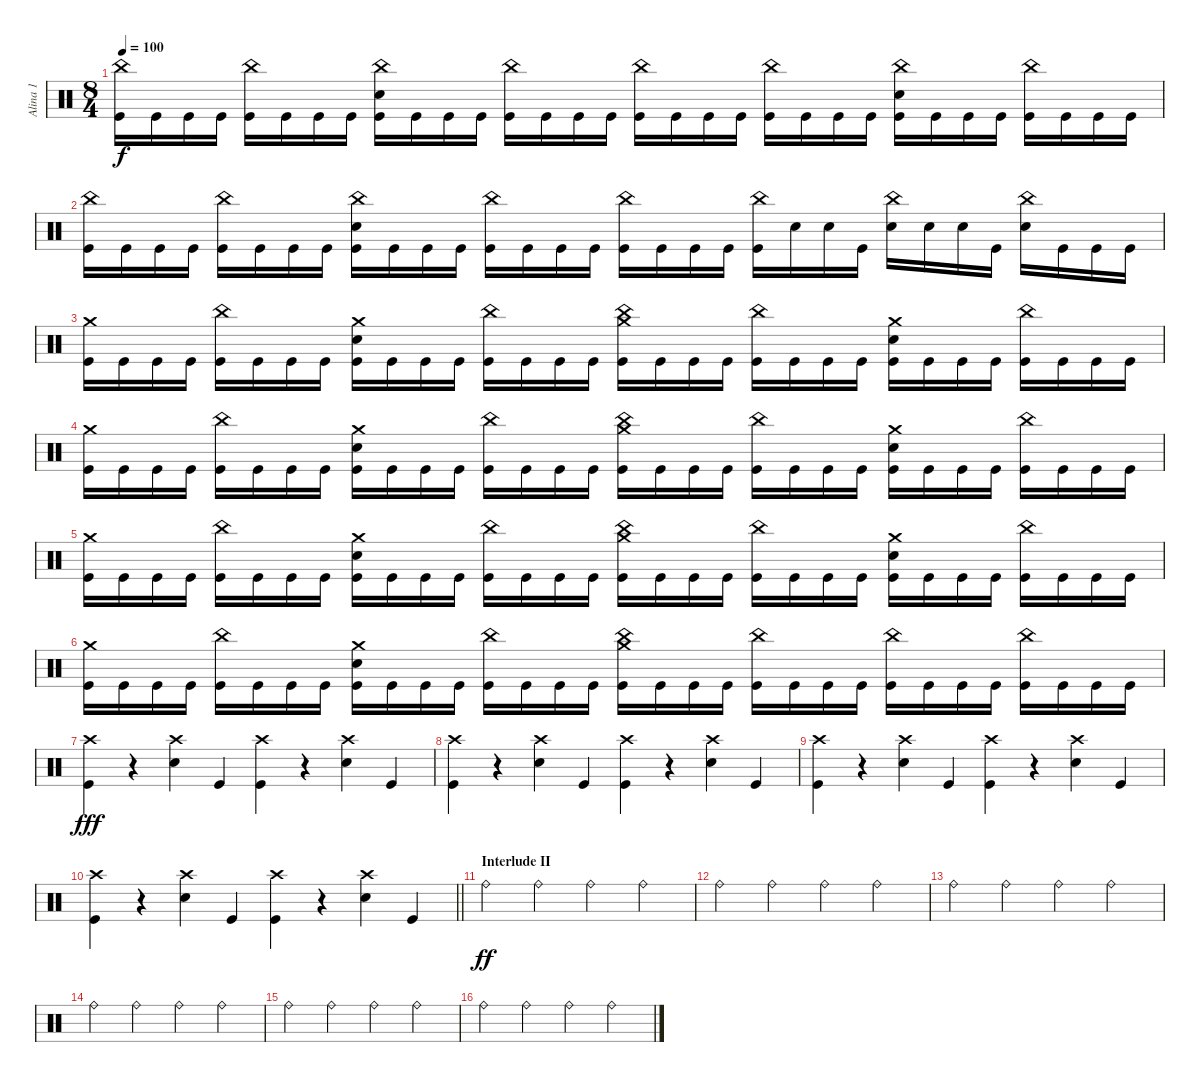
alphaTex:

\track ("Alina 1" "Alina 1") {mute instrument percussion}
\staff {score}
\articulation defaults
\ts (8 4)
\tempo 100
\clef neutral
\ks c
("China (hit)" "Kick (hit)").16{dy f} "Kick (hit)".16 "Kick (hit)".16 "Kick (hit)".16 ("China (hit)" "Kick (hit)").16 "Kick (hit)".16 "Kick (hit)".16 "Kick (hit)".16 ("China (hit)" "Snare (hit) 2" "Kick (hit)").16 "Kick (hit)".16 "Kick (hit)".16 "Kick (hit)".16 ("China (hit)" "Kick (hit)").16 "Kick (hit)".16 "Kick (hit)".16 "Kick (hit)".16 ("China (hit)" "Kick (hit)").16 "Kick (hit)".16 "Kick (hit)".16 "Kick (hit)".16 ("China (hit)" "Kick (hit)").16 "Kick (hit)".16 "Kick (hit)".16 "Kick (hit)".16 ("China (hit)" "Snare (hit) 2" "Kick (hit)").16 "Kick (hit)".16 "Kick (hit)".16 "Kick (hit)".16 ("China (hit)" "Kick (hit)").16 "Kick (hit)".16 "Kick (hit)".16 "Kick (hit)".16 |
("China (hit)" "Kick (hit)").16 "Kick (hit)".16 "Kick (hit)".16 "Kick (hit)".16 ("China (hit)" "Kick (hit)").16 "Kick (hit)".16 "Kick (hit)".16 "Kick (hit)".16 ("China (hit)" "Snare (hit) 2" "Kick (hit)").16 "Kick (hit)".16 "Kick (hit)".16 "Kick (hit)".16 ("China (hit)" "Kick (hit)").16 "Kick (hit)".16 "Kick (hit)".16 "Kick (hit)".16 ("China (hit)" "Kick (hit)").16 "Kick (hit)".16 "Kick (hit)".16 "Kick (hit)".16 ("China (hit)" "Kick (hit)").16 "Snare (hit) 2".16 "Snare (hit) 2".16 "Kick (hit)".16 ("China (hit)" "Snare (hit) 2").16 "Snare (hit) 2".16 "Snare (hit) 2".16 "Kick (hit)".16 ("China (hit)" "Snare (hit) 2").16 "Kick (hit)".16 "Kick (hit)".16 "Kick (hit)".16 |
("Crash medium (hit)" "Kick (hit)").16 "Kick (hit)".16 "Kick (hit)".16 "Kick (hit)".16 ("China (hit)" "Kick (hit)").16 "Kick (hit)".16 "Kick (hit)".16 "Kick (hit)".16 ("Crash medium (hit)" "Snare (hit) 2" "Kick (hit)").16 "Kick (hit)".16 "Kick (hit)".16 "Kick (hit)".16 ("China (hit)" "Kick (hit)").16 "Kick (hit)".16 "Kick (hit)".16 "Kick (hit)".16 ("Crash medium (hit)" "China (hit)" "Kick (hit)").16 "Kick (hit)".16 "Kick (hit)".16 "Kick (hit)".16 ("China (hit)" "Kick (hit)").16 "Kick (hit)".16 "Kick (hit)".16 "Kick (hit)".16 ("Crash medium (hit)" "Snare (hit) 2" "Kick (hit)").16 "Kick (hit)".16 "Kick (hit)".16 "Kick (hit)".16 ("China (hit)" "Kick (hit)").16 "Kick (hit)".16 "Kick (hit)".16 "Kick (hit)".16 |
("Crash medium (hit)" "Kick (hit)").16 "Kick (hit)".16 "Kick (hit)".16 "Kick (hit)".16 ("China (hit)" "Kick (hit)").16 "Kick (hit)".16 "Kick (hit)".16 "Kick (hit)".16 ("Crash medium (hit)" "Snare (hit) 2" "Kick (hit)").16 "Kick (hit)".16 "Kick (hit)".16 "Kick (hit)".16 ("China (hit)" "Kick (hit)").16 "Kick (hit)".16 "Kick (hit)".16 "Kick (hit)".16 ("Crash medium (hit)" "China (hit)" "Kick (hit)").16 "Kick (hit)".16 "Kick (hit)".16 "Kick (hit)".16 ("China (hit)" "Kick (hit)").16 "Kick (hit)".16 "Kick (hit)".16 "Kick (hit)".16 ("Crash medium (hit)" "Snare (hit) 2" "Kick (hit)").16 "Kick (hit)".16 "Kick (hit)".16 "Kick (hit)".16 ("China (hit)" "Kick (hit)").16 "Kick (hit)".16 "Kick (hit)".16 "Kick (hit)".16 |
("Crash medium (hit)" "Kick (hit)").16 "Kick (hit)".16 "Kick (hit)".16 "Kick (hit)".16 ("China (hit)" "Kick (hit)").16 "Kick (hit)".16 "Kick (hit)".16 "Kick (hit)".16 ("Crash medium (hit)" "Snare (hit) 2" "Kick (hit)").16 "Kick (hit)".16 "Kick (hit)".16 "Kick (hit)".16 ("China (hit)" "Kick (hit)").16 "Kick (hit)".16 "Kick (hit)".16 "Kick (hit)".16 ("Crash medium (hit)" "China (hit)" "Kick (hit)").16 "Kick (hit)".16 "Kick (hit)".16 "Kick (hit)".16 ("China (hit)" "Kick (hit)").16 "Kick (hit)".16 "Kick (hit)".16 "Kick (hit)".16 ("Crash medium (hit)" "Snare (hit) 2" "Kick (hit)").16 "Kick (hit)".16 "Kick (hit)".16 "Kick (hit)".16 ("China (hit)" "Kick (hit)").16 "Kick (hit)".16 "Kick (hit)".16 "Kick (hit)".16 |
("Crash medium (hit)" "Kick (hit)").16 "Kick (hit)".16 "Kick (hit)".16 "Kick (hit)".16 ("China (hit)" "Kick (hit)").16 "Kick (hit)".16 "Kick (hit)".16 "Kick (hit)".16 ("Crash medium (hit)" "Snare (hit) 2" "Kick (hit)").16 "Kick (hit)".16 "Kick (hit)".16 "Kick (hit)".16 ("China (hit)" "Kick (hit)").16 "Kick (hit)".16 "Kick (hit)".16 "Kick (hit)".16 ("Crash medium (hit)" "China (hit)" "Kick (hit)").16 "Kick (hit)".16 "Kick (hit)".16 "Kick (hit)".16 ("China (hit)" "Kick (hit)").16 "Kick (hit)".16 "Kick (hit)".16 "Kick (hit)".16 ("China (hit)" "Kick (hit)").16 "Kick (hit)".16 "Kick (hit)".16 "Kick (hit)".16 ("China (hit)" "Kick (hit)").16 "Kick (hit)".16 "Kick (hit)".16 "Kick (hit)".16 |
("Kick (hit)" "Crash high (hit)").4{dy fff} r.4 ("Snare (hit) 2" "Crash high (hit)").4 "Kick (hit)".4 ("Kick (hit)" "Crash high (hit)").4 r.4 ("Snare (hit) 2" "Crash high (hit)").4 "Kick (hit)".4 |
("Kick (hit)" "Crash high (hit)").4 r.4 ("Snare (hit) 2" "Crash high (hit)").4 "Kick (hit)".4 ("Kick (hit)" "Crash high (hit)").4 r.4 ("Snare (hit) 2" "Crash high (hit)").4 "Kick (hit)".4 |
("Kick (hit)" "Crash high (hit)").4 r.4 ("Snare (hit) 2" "Crash high (hit)").4 "Kick (hit)".4 ("Kick (hit)" "Crash high (hit)").4 r.4 ("Snare (hit) 2" "Crash high (hit)").4 "Kick (hit)".4 |
\barLineRight lightlight
("Kick (hit)" "Crash high (hit)").4 r.4 ("Snare (hit) 2" "Crash high (hit)").4 "Kick (hit)".4 ("Kick (hit)" "Crash high (hit)").4 r.4 ("Snare (hit) 2" "Crash high (hit)").4 "Kick (hit)".4 |
\section ("" "Interlude II")
"Ride (bell)".2{dy ff} "Ride (bell)".2 "Ride (bell)".2 "Ride (bell)".2 |
"Ride (bell)".2 "Ride (bell)".2 "Ride (bell)".2 "Ride (bell)".2 |
"Ride (bell)".2 "Ride (bell)".2 "Ride (bell)".2 "Ride (bell)".2 |
"Ride (bell)".2 "Ride (bell)".2 "Ride (bell)".2 "Ride (bell)".2 |
"Ride (bell)".2 "Ride (bell)".2 "Ride (bell)".2 "Ride (bell)".2 |
"Ride (bell)".2 "Ride (bell)".2 "Ride (bell)".2 "Ride (bell)".2
